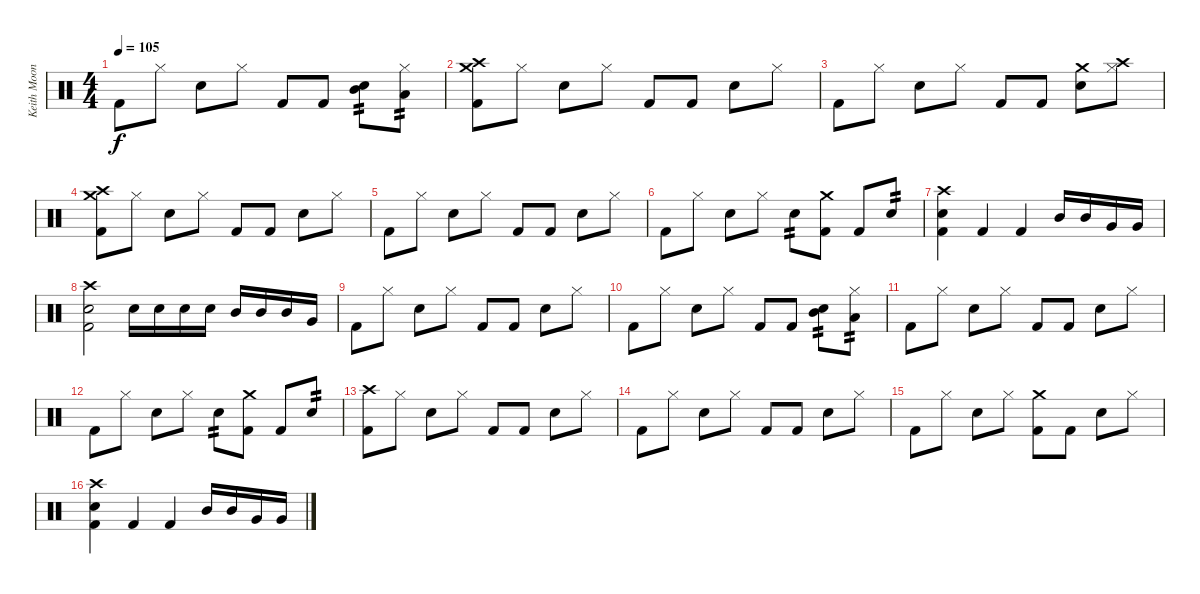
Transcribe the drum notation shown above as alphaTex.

\track ("Keith Moon" "Keith Moon") {instrument percussion}
\staff {score}
\articulation defaults
\ts (4 4)
\tempo 105
\clef neutral
\ks c "Kick (hit) 2".8{dy f} "Hi-Hat (closed)".8 "Electric Snare (hit)".8 "Hi-Hat (closed)".8 "Kick (hit) 2".8 "Kick (hit) 2".8
("Electric Snare (hit)" "Mid Tom (hit)").8{tp 2} ("Hi-Hat (closed)" "Low Floor Tom (hit)").8{tp 2} |
("Crash high (hit)" "Crash medium (hit)" "Kick (hit) 2").8 "Hi-Hat (closed)".8 "Electric Snare (hit)".8 "Hi-Hat (closed)".8 "Kick (hit) 2".8 "Kick (hit) 2".8 "Electric Snare (hit)".8 "Hi-Hat (closed)".8 |
"Kick (hit) 2".8 "Hi-Hat (closed)".8 "Electric Snare (hit)".8 "Hi-Hat (closed)".8 "Kick (hit) 2".8 "Kick (hit) 2".8 ("Electric Snare (hit)" "Crash medium (hit)").8 ("Hi-Hat (closed)" "Crash high (hit)").8 |
("Crash high (hit)" "Crash medium (hit)" "Kick (hit) 2").8 "Hi-Hat (closed)".8 "Electric Snare (hit)".8 "Hi-Hat (closed)".8 "Kick (hit) 2".8 "Kick (hit) 2".8 "Electric Snare (hit)".8 "Hi-Hat (closed)".8 |
"Kick (hit) 2".8 "Hi-Hat (closed)".8 "Electric Snare (hit)".8 "Hi-Hat (closed)".8 "Kick (hit) 2".8 "Kick (hit) 2".8 "Electric Snare (hit)".8 "Hi-Hat (closed)".8 |
"Kick (hit) 2".8 "Hi-Hat (closed)".8 "Electric Snare (hit)".8 "Hi-Hat (closed)".8 "Electric Snare (hit)".8{tp 2} ("Crash medium (hit)" "Kick (hit) 2").8 "Kick (hit) 2".8 "Electric Snare (hit)".8{tp 2} |
("Crash high (hit)" "Electric Snare (hit)" "Kick (hit) 2").4 "Kick (hit) 2".4 "Kick (hit) 2".4 "Mid Tom (hit)".16 "Mid Tom (hit)".16 "Very Low Tom (hit)".16 "Very Low Tom (hit)".16 |
("Crash high (hit)" "Electric Snare (hit)" "Kick (hit) 2").2 "Electric Snare (hit)".16 "Electric Snare (hit)".16 "Electric Snare (hit)".16 "Electric Snare (hit)".16 "Mid Tom (hit)".16 "Mid Tom (hit)".16 "Mid Tom (hit)".16 "Very Low Tom (hit)".16 |
"Kick (hit) 2".8 "Hi-Hat (closed)".8 "Electric Snare (hit)".8 "Hi-Hat (closed)".8 "Kick (hit) 2".8 "Kick (hit) 2".8 "Electric Snare (hit)".8 "Hi-Hat (closed)".8 |
"Kick (hit) 2".8 "Hi-Hat (closed)".8 "Electric Snare (hit)".8 "Hi-Hat (closed)".8 "Kick (hit) 2".8 "Kick (hit) 2".8 ("Electric Snare (hit)" "Mid Tom (hit)").8{tp 2} ("Hi-Hat (closed)" "Low Floor Tom (hit)").8{tp 2} |
"Kick (hit) 2".8 "Hi-Hat (closed)".8 "Electric Snare (hit)".8 "Hi-Hat (closed)".8 "Kick (hit) 2".8 "Kick (hit) 2".8 "Electric Snare (hit)".8 "Hi-Hat (closed)".8 |
"Kick (hit) 2".8 "Hi-Hat (closed)".8 "Electric Snare (hit)".8 "Hi-Hat (closed)".8 "Electric Snare (hit)".8{tp 2} ("Crash medium (hit)" "Kick (hit) 2").8 "Kick (hit) 2".8 "Electric Snare (hit)".8{tp 2} |
("Crash high (hit)" "Kick (hit) 2").8 "Hi-Hat (closed)".8 "Electric Snare (hit)".8 "Hi-Hat (closed)".8 "Kick (hit) 2".8 "Kick (hit) 2".8 "Electric Snare (hit)".8 "Hi-Hat (closed)".8 |
"Kick (hit) 2".8 "Hi-Hat (closed)".8 "Electric Snare (hit)".8 "Hi-Hat (closed)".8 "Kick (hit) 2".8 "Kick (hit) 2".8 "Electric Snare (hit)".8 "Hi-Hat (closed)".8 |
"Kick (hit) 2".8 "Hi-Hat (closed)".8 "Electric Snare (hit)".8 "Hi-Hat (closed)".8 ("Crash medium (hit)" "Kick (hit) 2").8 "Kick (hit) 2".8 "Electric Snare (hit)".8 "Hi-Hat (closed)".8 |
("Crash high (hit)" "Electric Snare (hit)" "Kick (hit) 2").4 "Kick (hit) 2".4 "Kick (hit) 2".4 "Mid Tom (hit)".16 "Mid Tom (hit)".16 "Very Low Tom (hit)".16 "Very Low Tom (hit)".16
